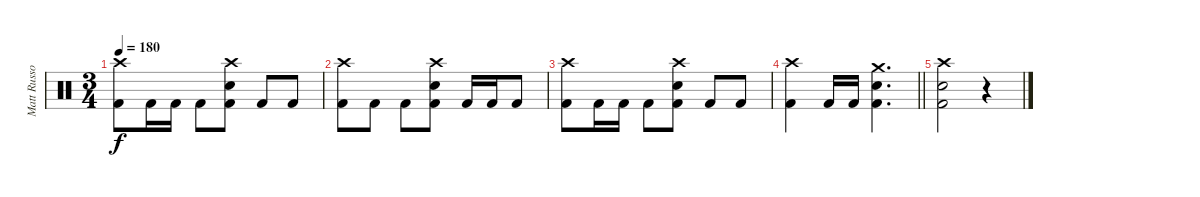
\track ("Matt Russo" "Matt Russo") {instrument percussion}
\staff {score}
\articulation defaults
\ts (3 4)
\tempo 180
\clef neutral
\ks c
("Crash high (hit)" "Kick (hit) 2").8{dy f} "Kick (hit) 2".16 "Kick (hit) 2".16 "Kick (hit) 2".8 ("Crash high (hit)" "Electric Snare (hit)" "Kick (hit) 2").8 "Kick (hit) 2".8 "Kick (hit) 2".8 |
("Crash high (hit)" "Kick (hit) 2").8 "Kick (hit) 2".8 "Kick (hit) 2".8 ("Crash high (hit)" "Electric Snare (hit)" "Kick (hit) 2").8 "Kick (hit) 2".16 "Kick (hit) 2".16 "Kick (hit) 2".8 |
("Crash high (hit)" "Kick (hit) 2").8 "Kick (hit) 2".16 "Kick (hit) 2".16 "Kick (hit) 2".8 ("Crash high (hit)" "Electric Snare (hit)" "Kick (hit) 2").8 "Kick (hit) 2".8 "Kick (hit) 2".8 |
\barLineRight lightlight
("Crash high (hit)" "Kick (hit) 2").4 "Kick (hit) 2".16 "Kick (hit) 2".16 ("Crash medium (hit)" "Electric Snare (hit)" "Kick (hit) 2").4{d} |
("Crash high (hit)" "Electric Snare (hit)" "Kick (hit) 2").2 r.4
